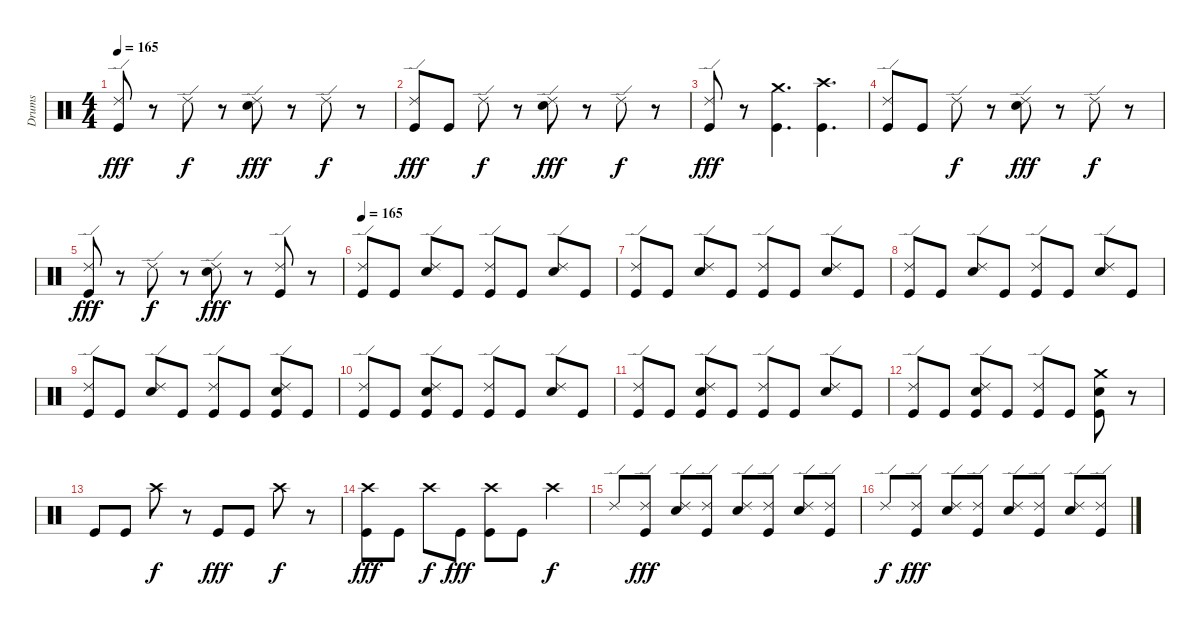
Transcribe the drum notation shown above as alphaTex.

\track ("Drums" "Drums") {instrument percussion}
\staff {score}
\articulation defaults
\ts (4 4)
\tempo 165
\clef neutral
\ks c
("Ride (edge) 2" "Kick (hit)").8{dy fff} r.8 "Ride (edge) 2".8{dy f} r.8 ("Ride (edge) 2" "Snare (hit) 2").8{dy fff} r.8 "Ride (edge) 2".8{dy f} r.8 |
("Ride (edge) 2" "Kick (hit)").8{dy fff} "Kick (hit)".8 "Ride (edge) 2".8{dy f} r.8 ("Ride (edge) 2" "Snare (hit) 2").8{dy fff} r.8 "Ride (edge) 2".8{dy f} r.8 |
("Ride (edge) 2" "Kick (hit)").8{dy fff} r.8 ("Crash medium (hit)" "Kick (hit)").4{d} ("Crash high (hit)" "Kick (hit)").4{d} |
("Ride (edge) 2" "Kick (hit)").8 "Kick (hit)".8 "Ride (edge) 2".8{dy f} r.8 ("Ride (edge) 2" "Snare (hit) 2").8{dy fff} r.8 "Ride (edge) 2".8{dy f} r.8 |
("Ride (edge) 2" "Kick (hit)").8{dy fff} r.8 "Ride (edge) 2".8{dy f} r.8 ("Ride (edge) 2" "Snare (hit) 2").8{dy fff} r.8 ("Ride (edge) 2" "Kick (hit)").8 r.8 |
\tempo 165
("Ride (edge) 2" "Kick (hit)").8 "Kick (hit)".8 ("Ride (edge) 2" "Snare (hit) 2").8 "Kick (hit)".8 ("Ride (edge) 2" "Kick (hit)").8 "Kick (hit)".8 ("Ride (edge) 2" "Snare (hit) 2").8 "Kick (hit)".8 |
("Ride (edge) 2" "Kick (hit)").8 "Kick (hit)".8 ("Ride (edge) 2" "Snare (hit) 2").8 "Kick (hit)".8 ("Ride (edge) 2" "Kick (hit)").8 "Kick (hit)".8 ("Ride (edge) 2" "Snare (hit) 2").8 "Kick (hit)".8 |
("Ride (edge) 2" "Kick (hit)").8 "Kick (hit)".8 ("Ride (edge) 2" "Snare (hit) 2").8 "Kick (hit)".8 ("Ride (edge) 2" "Kick (hit)").8 "Kick (hit)".8 ("Ride (edge) 2" "Snare (hit) 2").8 "Kick (hit)".8 |
("Ride (edge) 2" "Kick (hit)").8 "Kick (hit)".8 ("Ride (edge) 2" "Snare (hit) 2").8 "Kick (hit)".8 ("Ride (edge) 2" "Kick (hit)").8 "Kick (hit)".8 ("Ride (edge) 2" "Snare (hit) 2" "Kick (hit)").8 "Kick (hit)".8 |
("Ride (edge) 2" "Kick (hit)").8 "Kick (hit)".8 ("Ride (edge) 2" "Snare (hit) 2" "Kick (hit)").8 "Kick (hit)".8 ("Ride (edge) 2" "Kick (hit)").8 "Kick (hit)".8 ("Ride (edge) 2" "Snare (hit) 2").8 "Kick (hit)".8 |
("Ride (edge) 2" "Kick (hit)").8 "Kick (hit)".8 ("Ride (edge) 2" "Snare (hit) 2" "Kick (hit)").8 "Kick (hit)".8 ("Ride (edge) 2" "Kick (hit)").8 "Kick (hit)".8 ("Ride (edge) 2" "Snare (hit) 2").8 "Kick (hit)".8 |
("Ride (edge) 2" "Kick (hit)").8 "Kick (hit)".8 ("Ride (edge) 2" "Snare (hit) 2" "Kick (hit)").8 "Kick (hit)".8 ("Ride (edge) 2" "Kick (hit)").8 "Kick (hit)".8 ("Crash medium (hit)" "Snare (hit) 2" "Kick (hit)").8 r.8 |
"Kick (hit)".8 "Kick (hit)".8 "Crash high (hit)".8{dy f} r.8 "Kick (hit)".8{dy fff} "Kick (hit)".8 "Crash high (hit)".8{dy f} r.8 |
("Crash high (hit)" "Kick (hit)").8{dy fff} "Kick (hit)".8 "Crash high (hit)".8{dy f} "Kick (hit)".8{dy fff} ("Crash high (hit)" "Kick (hit)").8 "Kick (hit)".8 "Crash high (hit)".4{dy f} |
"Ride (edge) 2".8 ("Ride (edge) 2" "Kick (hit)").8{dy fff} ("Ride (edge) 2" "Snare (hit) 2").8 ("Ride (edge) 2" "Kick (hit)").8 ("Ride (edge) 2" "Snare (hit) 2").8 ("Ride (edge) 2" "Kick (hit)").8 ("Ride (edge) 2" "Snare (hit) 2").8 ("Ride (edge) 2" "Kick (hit)").8 |
"Ride (edge) 2".8{dy f} ("Ride (edge) 2" "Kick (hit)").8{dy fff} ("Ride (edge) 2" "Snare (hit) 2").8 ("Ride (edge) 2" "Kick (hit)").8 ("Ride (edge) 2" "Snare (hit) 2").8 ("Ride (edge) 2" "Kick (hit)").8 ("Ride (edge) 2" "Snare (hit) 2").8 ("Ride (edge) 2" "Kick (hit)").8
